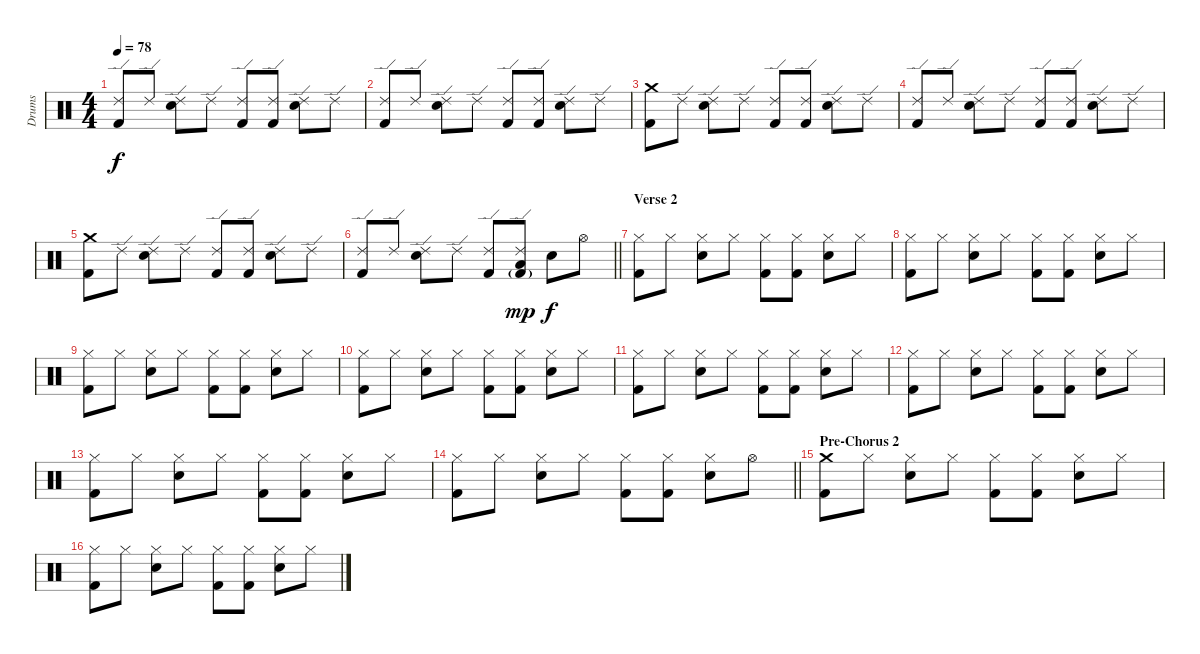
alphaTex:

\track ("Drums" "Drums") {instrument percussion}
\staff {score}
\articulation defaults
\ts (4 4)
\tempo 78
\clef neutral
\ks c
("Ride (edge) 2" "Kick (hit) 2").8{dy f} "Ride (edge) 2".8 ("Ride (edge) 2" "Electric Snare (hit)").8 "Ride (edge) 2".8 ("Ride (edge) 2" "Kick (hit) 2").8 ("Ride (edge) 2" "Kick (hit) 2").8 ("Ride (edge) 2" "Electric Snare (hit)").8 "Ride (edge) 2".8 |
("Ride (edge) 2" "Kick (hit) 2").8 "Ride (edge) 2".8 ("Ride (edge) 2" "Electric Snare (hit)").8 "Ride (edge) 2".8 ("Ride (edge) 2" "Kick (hit) 2").8 ("Ride (edge) 2" "Kick (hit) 2").8 ("Ride (edge) 2" "Electric Snare (hit)").8 "Ride (edge) 2".8 |
("Crash medium (hit)" "Kick (hit) 2").8 "Ride (edge) 2".8 ("Ride (edge) 2" "Electric Snare (hit)").8 "Ride (edge) 2".8 ("Ride (edge) 2" "Kick (hit) 2").8 ("Ride (edge) 2" "Kick (hit) 2").8 ("Ride (edge) 2" "Electric Snare (hit)").8 "Ride (edge) 2".8 |
("Ride (edge) 2" "Kick (hit) 2").8 "Ride (edge) 2".8 ("Ride (edge) 2" "Electric Snare (hit)").8 "Ride (edge) 2".8 ("Ride (edge) 2" "Kick (hit) 2").8 ("Ride (edge) 2" "Kick (hit) 2").8 ("Ride (edge) 2" "Electric Snare (hit)").8 "Ride (edge) 2".8 |
("Crash medium (hit)" "Kick (hit) 2").8 "Ride (edge) 2".8 ("Ride (edge) 2" "Electric Snare (hit)").8 "Ride (edge) 2".8 ("Ride (edge) 2" "Kick (hit) 2").8 ("Ride (edge) 2" "Kick (hit) 2").8 ("Ride (edge) 2" "Electric Snare (hit)").8 "Ride (edge) 2".8 |
\barLineRight lightlight
("Ride (edge) 2" "Kick (hit) 2").8 "Ride (edge) 2".8 ("Ride (edge) 2" "Electric Snare (hit)").8 "Ride (edge) 2".8 ("Ride (edge) 2" "Kick (hit) 2").8 ("Ride (edge) 2" "Low Tom (hit)" "Kick (hit) 2"{g}).8{dy mp} "Electric Snare (hit)".8{dy f} "Hi-Hat (open)".8 |
\section ("" "Verse 2")
("Hi-Hat (closed)" "Kick (hit) 2").8 "Hi-Hat (closed)".8 ("Hi-Hat (closed)" "Electric Snare (hit)").8 "Hi-Hat (closed)".8 ("Hi-Hat (closed)" "Kick (hit) 2").8 ("Hi-Hat (closed)" "Kick (hit) 2").8 ("Hi-Hat (closed)" "Electric Snare (hit)").8 "Hi-Hat (closed)".8 |
("Hi-Hat (closed)" "Kick (hit) 2").8 "Hi-Hat (closed)".8 ("Hi-Hat (closed)" "Electric Snare (hit)").8 "Hi-Hat (closed)".8 ("Hi-Hat (closed)" "Kick (hit) 2").8 ("Hi-Hat (closed)" "Kick (hit) 2").8 ("Hi-Hat (closed)" "Electric Snare (hit)").8 "Hi-Hat (closed)".8 |
("Hi-Hat (closed)" "Kick (hit) 2").8 "Hi-Hat (closed)".8 ("Hi-Hat (closed)" "Electric Snare (hit)").8 "Hi-Hat (closed)".8 ("Hi-Hat (closed)" "Kick (hit) 2").8 ("Hi-Hat (closed)" "Kick (hit) 2").8 ("Hi-Hat (closed)" "Electric Snare (hit)").8 "Hi-Hat (closed)".8 |
("Hi-Hat (closed)" "Kick (hit) 2").8 "Hi-Hat (closed)".8 ("Hi-Hat (closed)" "Electric Snare (hit)").8 "Hi-Hat (closed)".8 ("Hi-Hat (closed)" "Kick (hit) 2").8 ("Hi-Hat (closed)" "Kick (hit) 2").8 ("Hi-Hat (closed)" "Electric Snare (hit)").8 "Hi-Hat (closed)".8 |
("Hi-Hat (closed)" "Kick (hit) 2").8 "Hi-Hat (closed)".8 ("Hi-Hat (closed)" "Electric Snare (hit)").8 "Hi-Hat (closed)".8 ("Hi-Hat (closed)" "Kick (hit) 2").8 ("Hi-Hat (closed)" "Kick (hit) 2").8 ("Hi-Hat (closed)" "Electric Snare (hit)").8 "Hi-Hat (closed)".8 |
("Hi-Hat (closed)" "Kick (hit) 2").8 "Hi-Hat (closed)".8 ("Hi-Hat (closed)" "Electric Snare (hit)").8 "Hi-Hat (closed)".8 ("Hi-Hat (closed)" "Kick (hit) 2").8 ("Hi-Hat (closed)" "Kick (hit) 2").8 ("Hi-Hat (closed)" "Electric Snare (hit)").8 "Hi-Hat (closed)".8 |
("Hi-Hat (closed)" "Kick (hit) 2").8 "Hi-Hat (closed)".8 ("Hi-Hat (closed)" "Electric Snare (hit)").8 "Hi-Hat (closed)".8 ("Hi-Hat (closed)" "Kick (hit) 2").8 ("Hi-Hat (closed)" "Kick (hit) 2").8 ("Hi-Hat (closed)" "Electric Snare (hit)").8 "Hi-Hat (closed)".8 |
\barLineRight lightlight
("Hi-Hat (closed)" "Kick (hit) 2").8 "Hi-Hat (closed)".8 ("Hi-Hat (closed)" "Electric Snare (hit)").8 "Hi-Hat (closed)".8 ("Hi-Hat (closed)" "Kick (hit) 2").8 ("Hi-Hat (closed)" "Kick (hit) 2").8 ("Hi-Hat (closed)" "Electric Snare (hit)").8 "Hi-Hat (open)".8 |
\section ("" "Pre-Chorus 2")
("Crash medium (hit)" "Kick (hit) 2").8 "Hi-Hat (closed)".8 ("Hi-Hat (closed)" "Electric Snare (hit)").8 "Hi-Hat (closed)".8 ("Hi-Hat (closed)" "Kick (hit) 2").8 ("Hi-Hat (closed)" "Kick (hit) 2").8 ("Hi-Hat (closed)" "Electric Snare (hit)").8 "Hi-Hat (closed)".8 |
("Hi-Hat (closed)" "Kick (hit) 2").8 "Hi-Hat (closed)".8 ("Hi-Hat (closed)" "Electric Snare (hit)").8 "Hi-Hat (closed)".8 ("Hi-Hat (closed)" "Kick (hit) 2").8 ("Hi-Hat (closed)" "Kick (hit) 2").8 ("Hi-Hat (closed)" "Electric Snare (hit)").8 "Hi-Hat (closed)".8
